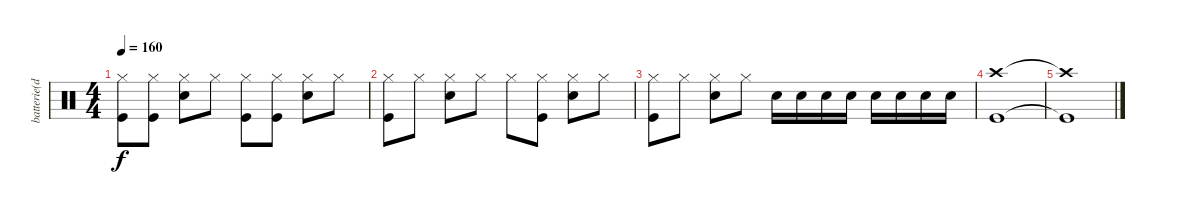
\track ("batterie(dave)" "batterie(d") {instrument percussion}
\staff {score}
\articulation defaults
\ts (4 4)
\tempo 160
\clef neutral
\ks c
("Hi-Hat (closed)" "Kick (hit)").8{dy f} ("Hi-Hat (closed)" "Kick (hit)").8 ("Hi-Hat (closed)" "Snare (hit) 2").8 "Hi-Hat (closed)".8 ("Hi-Hat (closed)" "Kick (hit)").8 ("Hi-Hat (closed)" "Kick (hit)").8 ("Hi-Hat (closed)" "Snare (hit) 2").8 "Hi-Hat (closed)".8 |
("Hi-Hat (closed)" "Kick (hit)").8 "Hi-Hat (closed)".8 ("Hi-Hat (closed)" "Snare (hit) 2").8 "Hi-Hat (closed)".8 "Hi-Hat (closed)".8 ("Hi-Hat (closed)" "Kick (hit)").8 ("Hi-Hat (closed)" "Snare (hit) 2").8 "Hi-Hat (closed)".8 |
("Hi-Hat (closed)" "Kick (hit)").8 "Hi-Hat (closed)".8 ("Hi-Hat (closed)" "Snare (hit) 2").8 "Hi-Hat (closed)".8 "Snare (hit) 2".16 "Snare (hit) 2".16 "Snare (hit) 2".16 "Snare (hit) 2".16 "Snare (hit) 2".16 "Snare (hit) 2".16 "Snare (hit) 2".16 "Snare (hit) 2".16 |
("Crash high (hit)" "Kick (hit)").1 |
("Crash high (hit)"{t} "Kick (hit)"{t}).1
